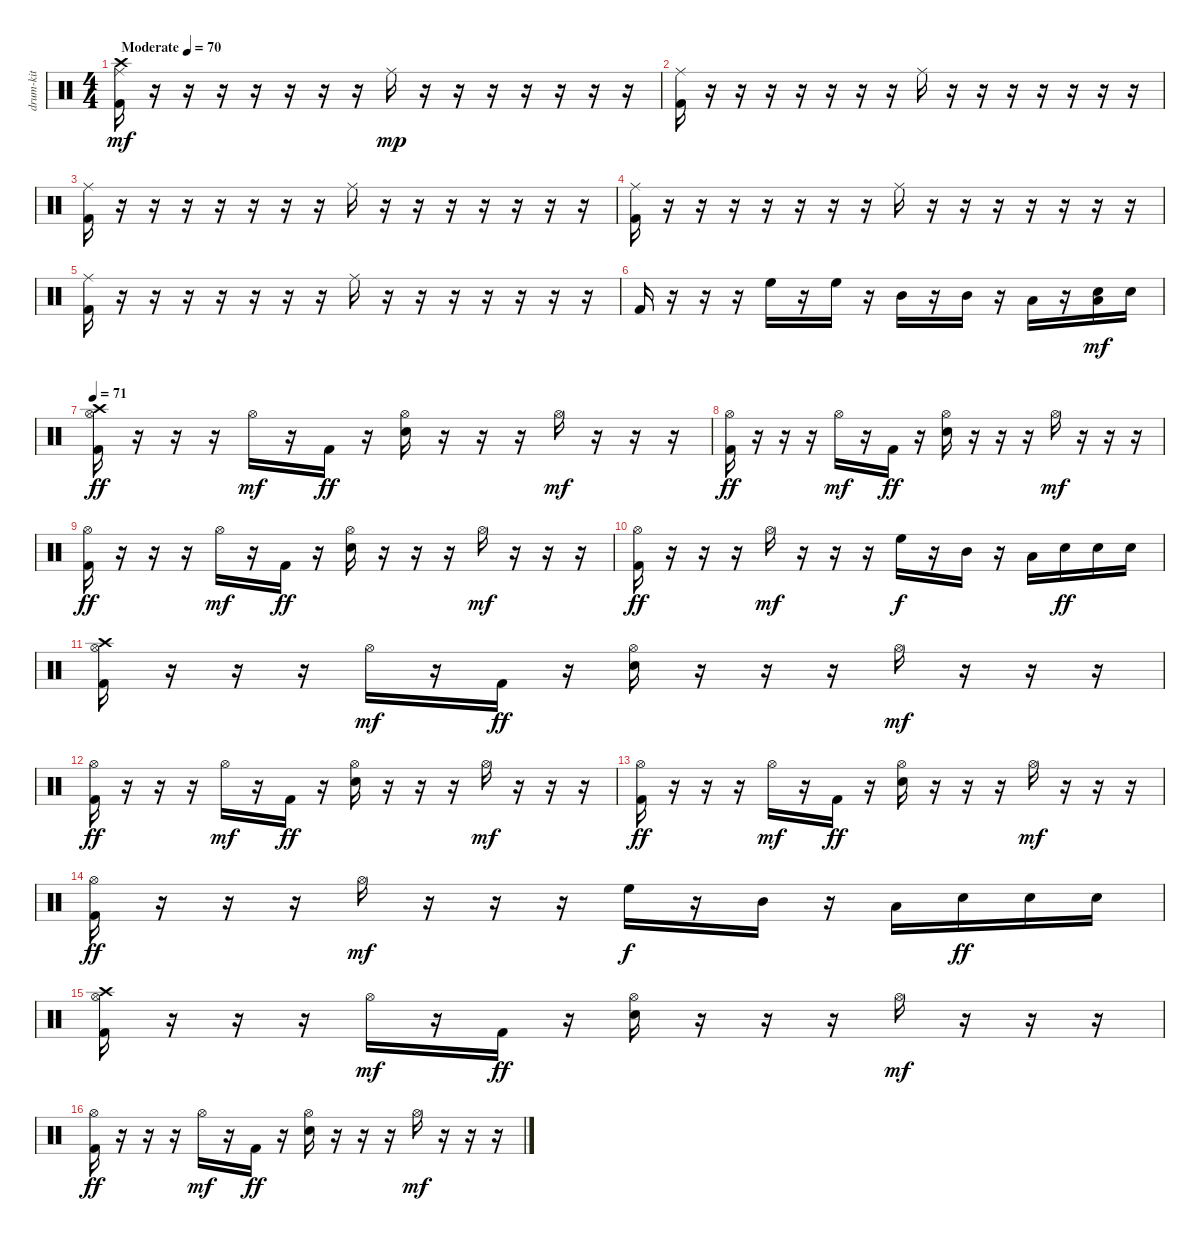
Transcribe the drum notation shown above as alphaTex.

\track ("drum-kit" "drum-kit") {instrument percussion}
\staff {score}
\articulation defaults
\ts (4 4)
\tempo (70 "Moderate")
\tempo 66
\tempo (70 "Moderate")
\clef neutral
\ks c
("Ride (middle)" "Crash high (hit)" "Kick (hit) 2").16{dy mf} r.16 r.16 r.16 r.16 r.16 r.16 r.16 "Ride (middle)".16{dy mp} r.16 r.16 r.16 r.16 r.16 r.16 r.16 |
("Ride (middle)" "Kick (hit) 2").16 r.16 r.16 r.16 r.16 r.16 r.16 r.16 "Ride (middle)".16 r.16 r.16 r.16 r.16 r.16 r.16 r.16 |
("Ride (middle)" "Kick (hit) 2").16 r.16 r.16 r.16 r.16 r.16 r.16 r.16 "Ride (middle)".16 r.16 r.16 r.16 r.16 r.16 r.16 r.16 |
("Ride (middle)" "Kick (hit) 2").16 r.16 r.16 r.16 r.16 r.16 r.16 r.16 "Ride (middle)".16 r.16 r.16 r.16 r.16 r.16 r.16 r.16 |
("Ride (middle)" "Kick (hit) 2").16 r.16 r.16 r.16 r.16 r.16 r.16 r.16 "Ride (middle)".16 r.16 r.16 r.16 r.16 r.16 r.16 r.16 |
"Kick (hit) 2".16 r.16 r.16 r.16 "High Floor Tom (hit)".16 r.16 "High Floor Tom (hit)".16 r.16 "Mid Tom (hit)".16 r.16 "Mid Tom (hit)".16 r.16 "Low Tom (hit)".16 r.16 ("Low Tom (hit)" "Snare (hit) 2").16{dy mf} "Snare (hit) 2".16 |
\tempo 71
("Crash high (hit)" "Hi-Hat (open)" "Kick (hit) 2").16{dy ff} r.16 r.16 r.16 "Hi-Hat (open)".16{dy mf} r.16 "Kick (hit) 2".16{dy ff} r.16 ("Hi-Hat (open)" "Snare (hit) 2").16 r.16 r.16 r.16 "Hi-Hat (open)".16{dy mf} r.16 r.16 r.16 |
("Hi-Hat (open)" "Kick (hit) 2").16{dy ff} r.16 r.16 r.16 "Hi-Hat (open)".16{dy mf} r.16 "Kick (hit) 2".16{dy ff} r.16 ("Hi-Hat (open)" "Snare (hit) 2").16 r.16 r.16 r.16 "Hi-Hat (open)".16{dy mf} r.16 r.16 r.16 |
("Hi-Hat (open)" "Kick (hit) 2").16{dy ff} r.16 r.16 r.16 "Hi-Hat (open)".16{dy mf} r.16 "Kick (hit) 2".16{dy ff} r.16 ("Hi-Hat (open)" "Snare (hit) 2").16 r.16 r.16 r.16 "Hi-Hat (open)".16{dy mf} r.16 r.16 r.16 |
("Hi-Hat (open)" "Kick (hit) 2").16{dy ff} r.16 r.16 r.16 "Hi-Hat (open)".16{dy mf} r.16 r.16 r.16 "High Floor Tom (hit)".16{dy f} r.16 "Mid Tom (hit)".16 r.16 "Low Tom (hit)".16 "Snare (hit) 2".16{dy ff} "Snare (hit) 2".16 "Snare (hit) 2".16 |
("Crash high (hit)" "Hi-Hat (open)" "Kick (hit) 2").16 r.16 r.16 r.16 "Hi-Hat (open)".16{dy mf} r.16 "Kick (hit) 2".16{dy ff} r.16 ("Hi-Hat (open)" "Snare (hit) 2").16 r.16 r.16 r.16 "Hi-Hat (open)".16{dy mf} r.16 r.16 r.16 |
("Hi-Hat (open)" "Kick (hit) 2").16{dy ff} r.16 r.16 r.16 "Hi-Hat (open)".16{dy mf} r.16 "Kick (hit) 2".16{dy ff} r.16 ("Hi-Hat (open)" "Snare (hit) 2").16 r.16 r.16 r.16 "Hi-Hat (open)".16{dy mf} r.16 r.16 r.16 |
("Hi-Hat (open)" "Kick (hit) 2").16{dy ff} r.16 r.16 r.16 "Hi-Hat (open)".16{dy mf} r.16 "Kick (hit) 2".16{dy ff} r.16 ("Hi-Hat (open)" "Snare (hit) 2").16 r.16 r.16 r.16 "Hi-Hat (open)".16{dy mf} r.16 r.16 r.16 |
("Hi-Hat (open)" "Kick (hit) 2").16{dy ff} r.16 r.16 r.16 "Hi-Hat (open)".16{dy mf} r.16 r.16 r.16 "High Floor Tom (hit)".16{dy f} r.16 "Mid Tom (hit)".16 r.16 "Low Tom (hit)".16 "Snare (hit) 2".16{dy ff} "Snare (hit) 2".16 "Snare (hit) 2".16 |
("Crash high (hit)" "Hi-Hat (open)" "Kick (hit) 2").16 r.16 r.16 r.16 "Hi-Hat (open)".16{dy mf} r.16 "Kick (hit) 2".16{dy ff} r.16 ("Hi-Hat (open)" "Snare (hit) 2").16 r.16 r.16 r.16 "Hi-Hat (open)".16{dy mf} r.16 r.16 r.16 |
("Hi-Hat (open)" "Kick (hit) 2").16{dy ff} r.16 r.16 r.16 "Hi-Hat (open)".16{dy mf} r.16 "Kick (hit) 2".16{dy ff} r.16 ("Hi-Hat (open)" "Snare (hit) 2").16 r.16 r.16 r.16 "Hi-Hat (open)".16{dy mf} r.16 r.16 r.16
